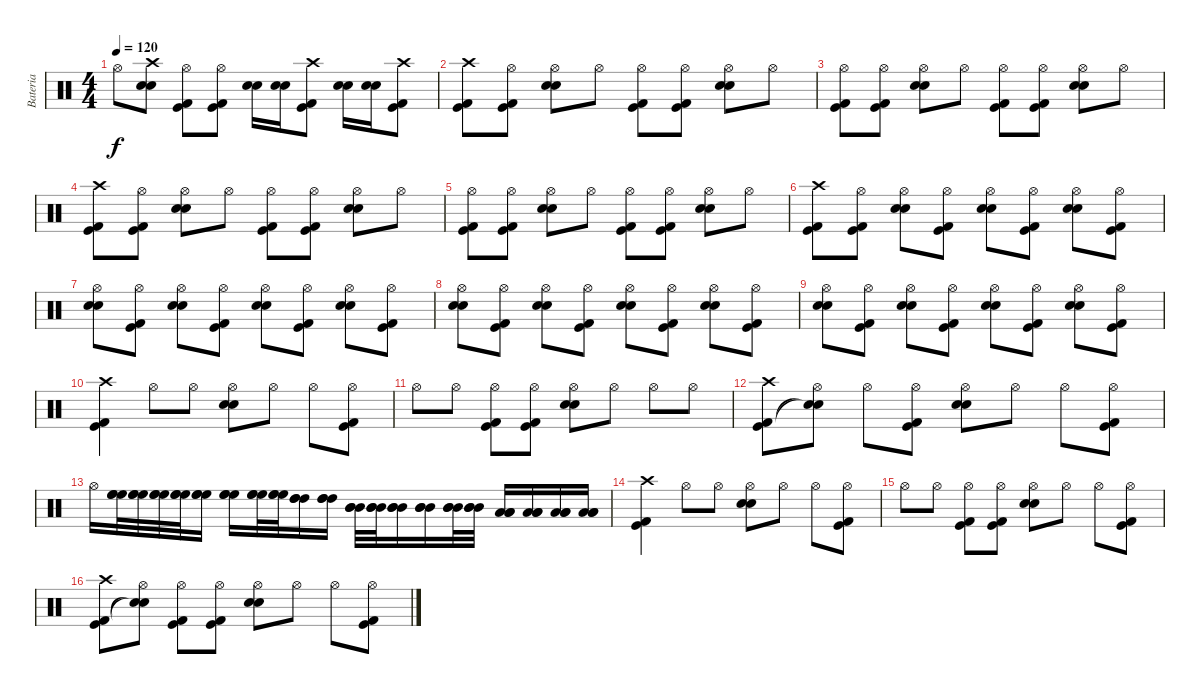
\track ("Bateria" "Bateria") {instrument percussion}
\staff {score}
\articulation defaults
\ts (4 4)
\tempo 120
\clef neutral
\ks c "Hi-Hat (open)".8{dy f}
("Crash high (hit)" "Electric Snare (hit)" "Snare (hit) 2").8 ("Hi-Hat (open)" "Kick (hit)" "Kick (hit) 2").8 ("Hi-Hat (open)" "Kick (hit)" "Kick (hit) 2").8 ("Electric Snare (hit)" "Snare (hit) 2").16 ("Electric Snare (hit)" "Snare (hit) 2").16 ("Crash high (hit)" "Kick (hit)" "Kick (hit) 2").8 ("Electric Snare (hit)" "Snare (hit) 2").16 ("Electric Snare (hit)" "Snare (hit) 2").16 ("Crash high (hit)" "Kick (hit)" "Kick (hit) 2").8 |
("Crash high (hit)" "Kick (hit)" "Kick (hit) 2").8 ("Hi-Hat (open)" "Kick (hit)" "Kick (hit) 2").8 ("Hi-Hat (open)" "Electric Snare (hit)" "Snare (hit) 2").8 "Hi-Hat (open)".8 ("Hi-Hat (open)" "Kick (hit)" "Kick (hit) 2").8 ("Hi-Hat (open)" "Kick (hit)" "Kick (hit) 2").8 ("Hi-Hat (open)" "Electric Snare (hit)" "Snare (hit) 2").8 "Hi-Hat (open)".8 |
("Hi-Hat (open)" "Kick (hit)" "Kick (hit) 2").8 ("Hi-Hat (open)" "Kick (hit)" "Kick (hit) 2").8 ("Hi-Hat (open)" "Electric Snare (hit)" "Snare (hit) 2").8 "Hi-Hat (open)".8 ("Hi-Hat (open)" "Kick (hit)" "Kick (hit) 2").8 ("Hi-Hat (open)" "Kick (hit)" "Kick (hit) 2").8 ("Hi-Hat (open)" "Electric Snare (hit)" "Snare (hit) 2").8 "Hi-Hat (open)".8 |
("Crash high (hit)" "Kick (hit)" "Kick (hit) 2").8 ("Hi-Hat (open)" "Kick (hit)" "Kick (hit) 2").8 ("Hi-Hat (open)" "Electric Snare (hit)" "Snare (hit) 2").8 "Hi-Hat (open)".8 ("Hi-Hat (open)" "Kick (hit)" "Kick (hit) 2").8 ("Hi-Hat (open)" "Kick (hit)" "Kick (hit) 2").8 ("Hi-Hat (open)" "Electric Snare (hit)" "Snare (hit) 2").8 "Hi-Hat (open)".8 |
("Hi-Hat (open)" "Kick (hit)" "Kick (hit) 2").8 ("Hi-Hat (open)" "Kick (hit)" "Kick (hit) 2").8 ("Hi-Hat (open)" "Electric Snare (hit)" "Snare (hit) 2").8 "Hi-Hat (open)".8 ("Hi-Hat (open)" "Kick (hit)" "Kick (hit) 2").8 ("Hi-Hat (open)" "Kick (hit)" "Kick (hit) 2").8 ("Hi-Hat (open)" "Electric Snare (hit)" "Snare (hit) 2").8 "Hi-Hat (open)".8 |
("Crash high (hit)" "Kick (hit)" "Kick (hit) 2").8 ("Hi-Hat (open)" "Kick (hit)" "Kick (hit) 2").8 ("Hi-Hat (open)" "Electric Snare (hit)" "Snare (hit) 2").8 ("Hi-Hat (open)" "Kick (hit)" "Kick (hit) 2").8 ("Hi-Hat (open)" "Electric Snare (hit)" "Snare (hit) 2").8 ("Hi-Hat (open)" "Kick (hit)" "Kick (hit) 2").8 ("Hi-Hat (open)" "Electric Snare (hit)" "Snare (hit) 2").8 ("Hi-Hat (open)" "Kick (hit)" "Kick (hit) 2").8 |
("Hi-Hat (open)" "Electric Snare (hit)" "Snare (hit) 2").8 ("Hi-Hat (open)" "Kick (hit)" "Kick (hit) 2").8 ("Hi-Hat (open)" "Electric Snare (hit)" "Snare (hit) 2").8 ("Hi-Hat (open)" "Kick (hit)" "Kick (hit) 2").8 ("Hi-Hat (open)" "Electric Snare (hit)" "Snare (hit) 2").8 ("Hi-Hat (open)" "Kick (hit)" "Kick (hit) 2").8 ("Hi-Hat (open)" "Electric Snare (hit)" "Snare (hit) 2").8 ("Hi-Hat (open)" "Kick (hit)" "Kick (hit) 2").8 |
("Hi-Hat (open)" "Electric Snare (hit)" "Snare (hit) 2").8 ("Hi-Hat (open)" "Kick (hit)" "Kick (hit) 2").8 ("Hi-Hat (open)" "Electric Snare (hit)" "Snare (hit) 2").8 ("Hi-Hat (open)" "Kick (hit)" "Kick (hit) 2").8 ("Hi-Hat (open)" "Electric Snare (hit)" "Snare (hit) 2").8 ("Hi-Hat (open)" "Kick (hit)" "Kick (hit) 2").8 ("Hi-Hat (open)" "Electric Snare (hit)" "Snare (hit) 2").8 ("Hi-Hat (open)" "Kick (hit)" "Kick (hit) 2").8 |
("Hi-Hat (open)" "Electric Snare (hit)" "Snare (hit) 2").8 ("Hi-Hat (open)" "Kick (hit)" "Kick (hit) 2").8 ("Hi-Hat (open)" "Electric Snare (hit)" "Snare (hit) 2").8 ("Hi-Hat (open)" "Kick (hit)" "Kick (hit) 2").8 ("Hi-Hat (open)" "Electric Snare (hit)" "Snare (hit) 2").8 ("Hi-Hat (open)" "Kick (hit)" "Kick (hit) 2").8 ("Hi-Hat (open)" "Electric Snare (hit)" "Snare (hit) 2").8 ("Hi-Hat (open)" "Kick (hit)" "Kick (hit) 2").8 |
("Crash high (hit)" "Kick (hit)" "Kick (hit) 2").4 "Hi-Hat (open)".8 "Hi-Hat (open)".8 ("Hi-Hat (open)" "Electric Snare (hit)" "Snare (hit) 2").8 "Hi-Hat (open)".8 "Hi-Hat (open)".8 ("Hi-Hat (open)" "Kick (hit)" "Kick (hit) 2").8 |
"Hi-Hat (open)".8 "Hi-Hat (open)".8 ("Hi-Hat (open)" "Kick (hit)" "Kick (hit) 2").8 ("Hi-Hat (open)" "Kick (hit)" "Kick (hit) 2").8 ("Hi-Hat (open)" "Electric Snare (hit)" "Snare (hit) 2").8 "Hi-Hat (open)".8 "Hi-Hat (open)".8 "Hi-Hat (open)".8 |
("Crash high (hit)" "Kick (hit)" "Kick (hit) 2").8 ("Hi-Hat (open)" "Snare (hit)"{t} "Snare (hit)"{t}).8 "Hi-Hat (open)".8 ("Hi-Hat (open)" "Kick (hit)" "Kick (hit) 2").8 ("Hi-Hat (open)" "Electric Snare (hit)" "Snare (hit) 2").8 "Hi-Hat (open)".8 "Hi-Hat (open)".8 ("Hi-Hat (open)" "Kick (hit)" "Kick (hit) 2").8 |
"Hi-Hat (open)".16 ("High Floor Tom (hit)" "High Floor Tom (hit)" "High Floor Tom (hit)").32 ("High Floor Tom (hit)" "High Floor Tom (hit)" "High Floor Tom (hit)").32 ("High Floor Tom (hit)" "High Floor Tom (hit)" "High Floor Tom (hit)").32 ("High Floor Tom (hit)" "High Floor Tom (hit)" "High Floor Tom (hit)").32 ("High Floor Tom (hit)" "High Floor Tom (hit)" "High Floor Tom (hit)").16 ("High Floor Tom (hit)" "High Floor Tom (hit)" "High Floor Tom (hit)").16 ("High Floor Tom (hit)" "High Floor Tom (hit)" "High Floor Tom (hit)").32 ("High Floor Tom (hit)" "High Floor Tom (hit)" "High Floor Tom (hit)").32 ("High Tom (hit)" "High Tom (hit)" "High Tom (hit)").16 ("High Tom (hit)" "High Tom (hit)" "High Tom (hit)").16 ("Mid Tom (hit)" "Mid Tom (hit)" "Mid Tom (hit)").32 ("Mid Tom (hit)" "Mid Tom (hit)" "Mid Tom (hit)").32 ("Mid Tom (hit)" "Mid Tom (hit)" "Mid Tom (hit)").16 ("Mid Tom (hit)" "Mid Tom (hit)" "Mid Tom (hit)").16 ("Mid Tom (hit)" "Mid Tom (hit)" "Mid Tom (hit)").32 ("Mid Tom (hit)" "Mid Tom (hit)" "Mid Tom (hit)").32 ("Low Tom (hit)" "Low Tom (hit)" "Low Tom (hit)").16 ("Low Tom (hit)" "Low Tom (hit)" "Low Tom (hit)").16 ("Low Tom (hit)" "Low Tom (hit)" "Low Tom (hit)").16 ("Low Tom (hit)" "Low Tom (hit)" "Low Tom (hit)").16 |
("Crash high (hit)" "Kick (hit)" "Kick (hit) 2").4 "Hi-Hat (open)".8 "Hi-Hat (open)".8 ("Hi-Hat (open)" "Electric Snare (hit)" "Snare (hit) 2").8 "Hi-Hat (open)".8 "Hi-Hat (open)".8 ("Hi-Hat (open)" "Kick (hit)" "Kick (hit) 2").8 |
"Hi-Hat (open)".8 "Hi-Hat (open)".8 ("Hi-Hat (open)" "Kick (hit)" "Kick (hit) 2").8 ("Hi-Hat (open)" "Kick (hit)" "Kick (hit) 2").8 ("Hi-Hat (open)" "Electric Snare (hit)" "Snare (hit) 2").8 "Hi-Hat (open)".8 "Hi-Hat (open)".8 ("Hi-Hat (open)" "Kick (hit)" "Kick (hit) 2").8 |
("Crash high (hit)" "Kick (hit)" "Kick (hit) 2").8 ("Hi-Hat (open)" "Snare (hit)"{t} "Snare (hit)"{t}).8 ("Hi-Hat (open)" "Kick (hit)" "Kick (hit) 2").8 ("Hi-Hat (open)" "Kick (hit)" "Kick (hit) 2").8 ("Hi-Hat (open)" "Electric Snare (hit)" "Snare (hit) 2").8 "Hi-Hat (open)".8 "Hi-Hat (open)".8 ("Hi-Hat (open)" "Kick (hit)" "Kick (hit) 2").8
